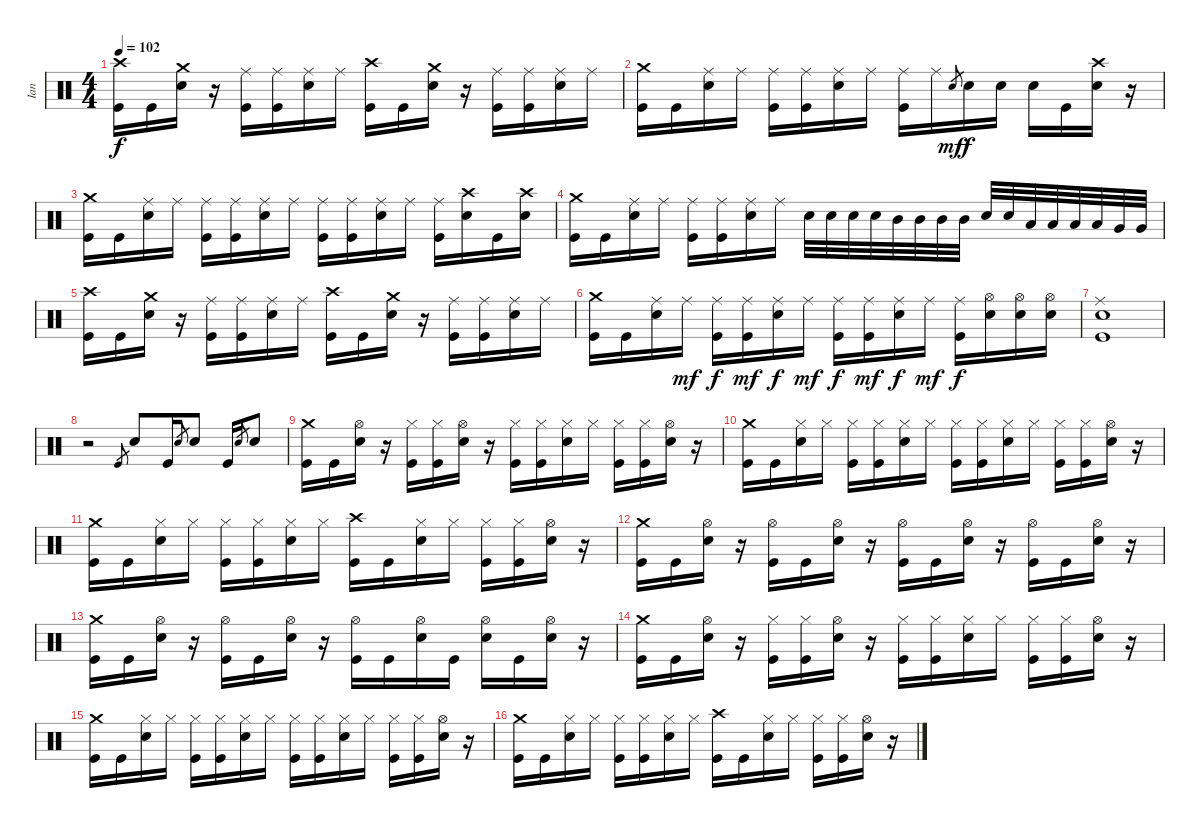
\track ("Ian" "Ian") {instrument percussion}
\staff {score}
\articulation defaults
\ts (4 4)
\tempo 102
\clef neutral
\ks c
("Crash high (hit)" "Kick (hit)").16{dy f} "Kick (hit)".16 ("Crash medium (hit)" "Electric Snare (hit)").16 r.16 ("Ride (middle)" "Kick (hit)").16 ("Ride (middle)" "Kick (hit)").16 ("Ride (middle)" "Electric Snare (hit)").16 "Ride (middle)".16 ("Crash high (hit)" "Kick (hit)").16 "Kick (hit)".16 ("Crash medium (hit)" "Electric Snare (hit)").16 r.16 ("Ride (middle)" "Kick (hit)").16 ("Ride (middle)" "Kick (hit)").16 ("Ride (middle)" "Electric Snare (hit)").16 "Ride (middle)".16 |
("Crash medium (hit)" "Kick (hit)").16 "Kick (hit)".16 ("Ride (middle)" "Electric Snare (hit)").16 "Ride (middle)".16 ("Ride (middle)" "Kick (hit)").16 ("Ride (middle)" "Kick (hit)").16 ("Ride (middle)" "Electric Snare (hit)").16 "Ride (middle)".16 ("Ride (middle)" "Kick (hit)").16 "Ride (middle)".16 "Electric Snare (hit)".8{gr dy mf} "Electric Snare (hit)".16{dy f} "Electric Snare (hit)".16 "Electric Snare (hit)".16 "Kick (hit)".16 ("Crash high (hit)" "Electric Snare (hit)").16 r.16 |
("Crash medium (hit)" "Kick (hit)").16 "Kick (hit)".16 ("Ride (middle)" "Electric Snare (hit)").16 "Ride (middle)".16 ("Ride (middle)" "Kick (hit)").16 ("Ride (middle)" "Kick (hit)").16 ("Ride (middle)" "Electric Snare (hit)").16 "Ride (middle)".16 ("Ride (middle)" "Kick (hit)").16 ("Ride (middle)" "Kick (hit)").16 ("Ride (middle)" "Electric Snare (hit)").16 "Ride (middle)".16 ("Ride (middle)" "Kick (hit)").16 ("Crash high (hit)" "Electric Snare (hit)").16 "Kick (hit)".16 ("Crash high (hit)" "Electric Snare (hit)").16 |
("Crash medium (hit)" "Kick (hit)").16 "Kick (hit)".16 ("Ride (middle)" "Electric Snare (hit)").16 "Ride (middle)".16 ("Ride (middle)" "Kick (hit)").16 ("Ride (middle)" "Kick (hit)").16 ("Ride (middle)" "Electric Snare (hit)").16 "Ride (middle)".16 "Electric Snare (hit)".32 "Electric Snare (hit)".32 "Electric Snare (hit)".32 "Electric Snare (hit)".32 "Mid Tom (hit)".32 "Mid Tom (hit)".32 "Mid Tom (hit)".32 "Mid Tom (hit)".32 "Electric Snare (hit)".32 "Electric Snare (hit)".32 "Low Tom (hit)".32 "Low Tom (hit)".32 "Low Tom (hit)".32 "Low Tom (hit)".32 "Very Low Tom (hit)".32 "Very Low Tom (hit)".32 |
("Crash high (hit)" "Kick (hit)").16 "Kick (hit)".16 ("Crash medium (hit)" "Electric Snare (hit)").16 r.16 ("Ride (middle)" "Kick (hit)").16 ("Ride (middle)" "Kick (hit)").16 ("Ride (middle)" "Electric Snare (hit)").16 "Ride (middle)".16 ("Crash high (hit)" "Kick (hit)").16 "Kick (hit)".16 ("Crash medium (hit)" "Electric Snare (hit)").16 r.16 ("Ride (middle)" "Kick (hit)").16 ("Ride (middle)" "Kick (hit)").16 ("Ride (middle)" "Electric Snare (hit)").16 "Ride (middle)".16 |
("Crash medium (hit)" "Kick (hit)").16 "Kick (hit)".16 ("Ride (middle)" "Electric Snare (hit)").16 "Ride (middle)".16{dy mf} ("Ride (middle)" "Kick (hit)").16{dy f} ("Ride (middle)" "Kick (hit)").16{dy mf} ("Ride (middle)" "Electric Snare (hit)").16{dy f} "Ride (middle)".16{dy mf} ("Ride (middle)" "Kick (hit)").16{dy f} ("Ride (middle)" "Kick (hit)").16{dy mf} ("Ride (middle)" "Electric Snare (hit)").16{dy f} "Ride (middle)".16{dy mf} ("Ride (middle)" "Kick (hit)").16{dy f} ("Hi-Hat (open)" "Electric Snare (hit)").16 ("Hi-Hat (open)" "Electric Snare (hit)").16 ("Hi-Hat (open)" "Electric Snare (hit)").16 |
("Ride (middle)" "Electric Snare (hit)" "Kick (hit)").1 |
r.2 "Kick (hit)".8{gr} "Electric Snare (hit)".8 "Kick (hit)".16 "Electric Snare (hit)".8{gr} "Electric Snare (hit)".8 "Kick (hit)".16 "Electric Snare (hit)".8{gr} "Electric Snare (hit)".8 |
("Crash medium (hit)" "Kick (hit)").16 "Kick (hit)".16 ("Hi-Hat (open)" "Electric Snare (hit)").16 r.16 ("Hi-Hat (closed)" "Kick (hit)").16 ("Hi-Hat (closed)" "Kick (hit)").16 ("Hi-Hat (open)" "Electric Snare (hit)").16 r.16 ("Hi-Hat (closed)" "Kick (hit)").16 ("Hi-Hat (closed)" "Kick (hit)").16 ("Hi-Hat (closed)" "Electric Snare (hit)").16 "Hi-Hat (closed)".16 ("Hi-Hat (closed)" "Kick (hit)").16 ("Hi-Hat (closed)" "Kick (hit)").16 ("Hi-Hat (open)" "Electric Snare (hit)").16 r.16 |
("Crash medium (hit)" "Kick (hit)").16 "Kick (hit)".16 ("Hi-Hat (closed)" "Electric Snare (hit)").16 "Hi-Hat (closed)".16 ("Hi-Hat (closed)" "Kick (hit)").16 ("Hi-Hat (closed)" "Kick (hit)").16 ("Hi-Hat (closed)" "Electric Snare (hit)").16 "Hi-Hat (closed)".16 ("Hi-Hat (closed)" "Kick (hit)").16 ("Hi-Hat (closed)" "Kick (hit)").16 ("Hi-Hat (closed)" "Electric Snare (hit)").16 "Hi-Hat (closed)".16 ("Hi-Hat (closed)" "Kick (hit)").16 ("Hi-Hat (closed)" "Kick (hit)").16 ("Hi-Hat (open)" "Electric Snare (hit)").16 r.16 |
("Crash medium (hit)" "Kick (hit)").16 "Kick (hit)".16 ("Hi-Hat (closed)" "Electric Snare (hit)").16 "Hi-Hat (closed)".16 ("Hi-Hat (closed)" "Kick (hit)").16 ("Hi-Hat (closed)" "Kick (hit)").16 ("Hi-Hat (closed)" "Electric Snare (hit)").16 "Hi-Hat (closed)".16 ("Crash high (hit)" "Kick (hit)").16 "Kick (hit)".16 ("Hi-Hat (closed)" "Electric Snare (hit)").16 "Hi-Hat (closed)".16 ("Hi-Hat (closed)" "Kick (hit)").16 ("Hi-Hat (closed)" "Kick (hit)").16 ("Hi-Hat (open)" "Electric Snare (hit)").16 r.16 |
("Crash medium (hit)" "Kick (hit)").16 "Kick (hit)".16 ("Hi-Hat (open)" "Electric Snare (hit)").16 r.16 ("Hi-Hat (open)" "Kick (hit)").16 "Kick (hit)".16 ("Hi-Hat (open)" "Electric Snare (hit)").16 r.16 ("Hi-Hat (open)" "Kick (hit)").16 "Kick (hit)".16 ("Hi-Hat (open)" "Electric Snare (hit)").16 r.16 ("Hi-Hat (open)" "Kick (hit)").16 "Kick (hit)".16 ("Hi-Hat (open)" "Electric Snare (hit)").16 r.16 |
("Crash medium (hit)" "Kick (hit)").16 "Kick (hit)".16 ("Hi-Hat (open)" "Electric Snare (hit)").16 r.16 ("Hi-Hat (open)" "Kick (hit)").16 "Kick (hit)".16 ("Hi-Hat (open)" "Electric Snare (hit)").16 r.16 ("Hi-Hat (open)" "Kick (hit)").16 "Kick (hit)".16 ("Hi-Hat (open)" "Electric Snare (hit)").16 "Kick (hit)".16 ("Hi-Hat (open)" "Electric Snare (hit)").16 "Kick (hit)".16 ("Hi-Hat (open)" "Electric Snare (hit)").16 r.16 |
("Crash medium (hit)" "Kick (hit)").16 "Kick (hit)".16 ("Hi-Hat (open)" "Electric Snare (hit)").16 r.16 ("Hi-Hat (closed)" "Kick (hit)").16 ("Hi-Hat (closed)" "Kick (hit)").16 ("Hi-Hat (open)" "Electric Snare (hit)").16 r.16 ("Hi-Hat (closed)" "Kick (hit)").16 ("Hi-Hat (closed)" "Kick (hit)").16 ("Hi-Hat (closed)" "Electric Snare (hit)").16 "Hi-Hat (closed)".16 ("Hi-Hat (closed)" "Kick (hit)").16 ("Hi-Hat (closed)" "Kick (hit)").16 ("Hi-Hat (open)" "Electric Snare (hit)").16 r.16 |
("Crash medium (hit)" "Kick (hit)").16 "Kick (hit)".16 ("Hi-Hat (closed)" "Electric Snare (hit)").16 "Hi-Hat (closed)".16 ("Hi-Hat (closed)" "Kick (hit)").16 ("Hi-Hat (closed)" "Kick (hit)").16 ("Hi-Hat (closed)" "Electric Snare (hit)").16 "Hi-Hat (closed)".16 ("Hi-Hat (closed)" "Kick (hit)").16 ("Hi-Hat (closed)" "Kick (hit)").16 ("Hi-Hat (closed)" "Electric Snare (hit)").16 "Hi-Hat (closed)".16 ("Hi-Hat (closed)" "Kick (hit)").16 ("Hi-Hat (closed)" "Kick (hit)").16 ("Hi-Hat (open)" "Electric Snare (hit)").16 r.16 |
("Crash medium (hit)" "Kick (hit)").16 "Kick (hit)".16 ("Hi-Hat (closed)" "Electric Snare (hit)").16 "Hi-Hat (closed)".16 ("Hi-Hat (closed)" "Kick (hit)").16 ("Hi-Hat (closed)" "Kick (hit)").16 ("Hi-Hat (closed)" "Electric Snare (hit)").16 "Hi-Hat (closed)".16 ("Crash high (hit)" "Kick (hit)").16 "Kick (hit)".16 ("Hi-Hat (closed)" "Electric Snare (hit)").16 "Hi-Hat (closed)".16 ("Hi-Hat (closed)" "Kick (hit)").16 ("Hi-Hat (closed)" "Kick (hit)").16 ("Hi-Hat (open)" "Electric Snare (hit)").16 r.16
